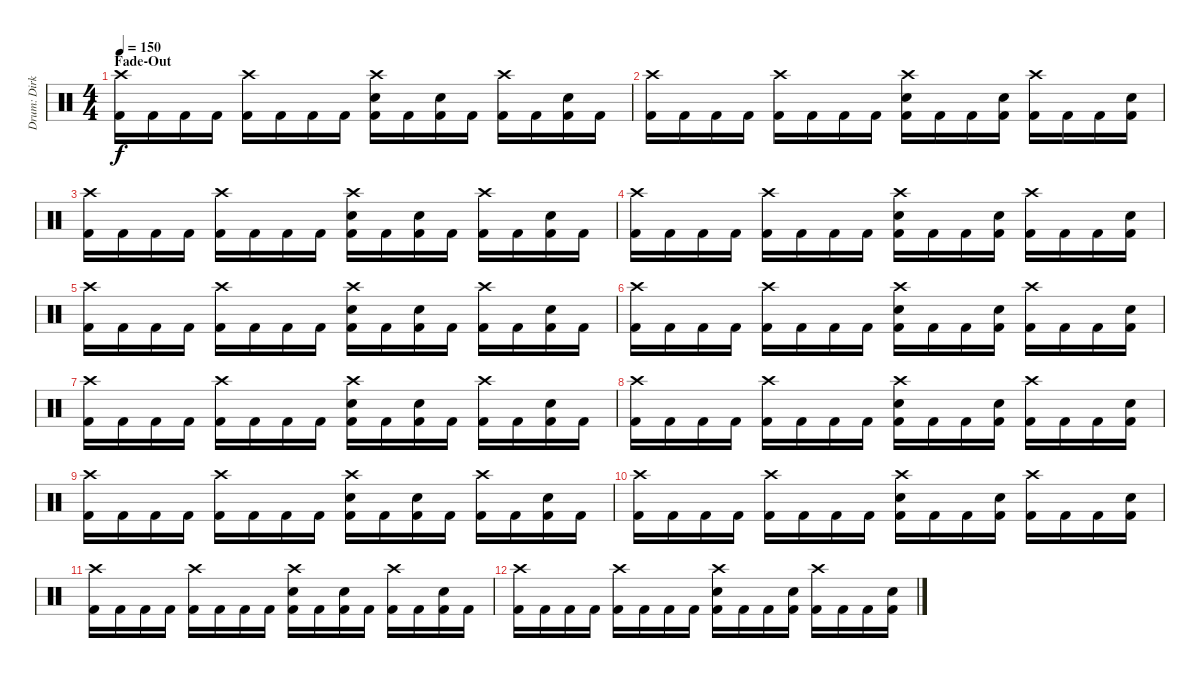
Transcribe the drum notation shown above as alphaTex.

\track ("Drum: Dirk" "Drum: Dirk") {instrument percussion}
\staff {score}
\articulation defaults
\ts (4 4)
\section ("" "Fade-Out")
\tempo 150
\clef neutral
\ks c
("Crash high (hit)" "Kick (hit) 2").16{dy f} "Kick (hit) 2".16 "Kick (hit) 2".16 "Kick (hit) 2".16 ("Crash high (hit)" "Kick (hit) 2").16 "Kick (hit) 2".16 "Kick (hit) 2".16 "Kick (hit) 2".16 ("Crash high (hit)" "Electric Snare (hit)" "Kick (hit) 2").16 "Kick (hit) 2".16 ("Electric Snare (hit)" "Kick (hit) 2").16 "Kick (hit) 2".16 ("Crash high (hit)" "Kick (hit) 2").16 "Kick (hit) 2".16 ("Electric Snare (hit)" "Kick (hit) 2").16 "Kick (hit) 2".16 |
("Crash high (hit)" "Kick (hit) 2").16 "Kick (hit) 2".16 "Kick (hit) 2".16 "Kick (hit) 2".16 ("Crash high (hit)" "Kick (hit) 2").16 "Kick (hit) 2".16 "Kick (hit) 2".16 "Kick (hit) 2".16 ("Crash high (hit)" "Electric Snare (hit)" "Kick (hit) 2").16 "Kick (hit) 2".16 "Kick (hit) 2".16 ("Electric Snare (hit)" "Kick (hit) 2").16 ("Crash high (hit)" "Kick (hit) 2").16 "Kick (hit) 2".16 "Kick (hit) 2".16 ("Electric Snare (hit)" "Kick (hit) 2").16 |
("Crash high (hit)" "Kick (hit) 2").16 "Kick (hit) 2".16 "Kick (hit) 2".16 "Kick (hit) 2".16 ("Crash high (hit)" "Kick (hit) 2").16 "Kick (hit) 2".16 "Kick (hit) 2".16 "Kick (hit) 2".16 ("Crash high (hit)" "Electric Snare (hit)" "Kick (hit) 2").16 "Kick (hit) 2".16 ("Electric Snare (hit)" "Kick (hit) 2").16 "Kick (hit) 2".16 ("Crash high (hit)" "Kick (hit) 2").16 "Kick (hit) 2".16 ("Electric Snare (hit)" "Kick (hit) 2").16 "Kick (hit) 2".16 |
("Crash high (hit)" "Kick (hit) 2").16 "Kick (hit) 2".16 "Kick (hit) 2".16 "Kick (hit) 2".16 ("Crash high (hit)" "Kick (hit) 2").16 "Kick (hit) 2".16 "Kick (hit) 2".16 "Kick (hit) 2".16 ("Crash high (hit)" "Electric Snare (hit)" "Kick (hit) 2").16 "Kick (hit) 2".16 "Kick (hit) 2".16 ("Electric Snare (hit)" "Kick (hit) 2").16 ("Crash high (hit)" "Kick (hit) 2").16 "Kick (hit) 2".16 "Kick (hit) 2".16 ("Electric Snare (hit)" "Kick (hit) 2").16 |
("Crash high (hit)" "Kick (hit) 2").16 "Kick (hit) 2".16 "Kick (hit) 2".16 "Kick (hit) 2".16 ("Crash high (hit)" "Kick (hit) 2").16 "Kick (hit) 2".16 "Kick (hit) 2".16 "Kick (hit) 2".16 ("Crash high (hit)" "Electric Snare (hit)" "Kick (hit) 2").16 "Kick (hit) 2".16 ("Electric Snare (hit)" "Kick (hit) 2").16 "Kick (hit) 2".16 ("Crash high (hit)" "Kick (hit) 2").16 "Kick (hit) 2".16 ("Electric Snare (hit)" "Kick (hit) 2").16 "Kick (hit) 2".16 |
("Crash high (hit)" "Kick (hit) 2").16 "Kick (hit) 2".16 "Kick (hit) 2".16 "Kick (hit) 2".16 ("Crash high (hit)" "Kick (hit) 2").16 "Kick (hit) 2".16 "Kick (hit) 2".16 "Kick (hit) 2".16 ("Crash high (hit)" "Electric Snare (hit)" "Kick (hit) 2").16 "Kick (hit) 2".16 "Kick (hit) 2".16 ("Electric Snare (hit)" "Kick (hit) 2").16 ("Crash high (hit)" "Kick (hit) 2").16 "Kick (hit) 2".16 "Kick (hit) 2".16 ("Electric Snare (hit)" "Kick (hit) 2").16 |
("Crash high (hit)" "Kick (hit) 2").16 "Kick (hit) 2".16 "Kick (hit) 2".16 "Kick (hit) 2".16 ("Crash high (hit)" "Kick (hit) 2").16 "Kick (hit) 2".16 "Kick (hit) 2".16 "Kick (hit) 2".16 ("Crash high (hit)" "Electric Snare (hit)" "Kick (hit) 2").16 "Kick (hit) 2".16 ("Electric Snare (hit)" "Kick (hit) 2").16 "Kick (hit) 2".16 ("Crash high (hit)" "Kick (hit) 2").16 "Kick (hit) 2".16 ("Electric Snare (hit)" "Kick (hit) 2").16 "Kick (hit) 2".16 |
("Crash high (hit)" "Kick (hit) 2").16 "Kick (hit) 2".16 "Kick (hit) 2".16 "Kick (hit) 2".16 ("Crash high (hit)" "Kick (hit) 2").16 "Kick (hit) 2".16 "Kick (hit) 2".16 "Kick (hit) 2".16 ("Crash high (hit)" "Electric Snare (hit)" "Kick (hit) 2").16 "Kick (hit) 2".16 "Kick (hit) 2".16 ("Electric Snare (hit)" "Kick (hit) 2").16 ("Crash high (hit)" "Kick (hit) 2").16 "Kick (hit) 2".16 "Kick (hit) 2".16 ("Electric Snare (hit)" "Kick (hit) 2").16 |
("Crash high (hit)" "Kick (hit) 2").16 "Kick (hit) 2".16 "Kick (hit) 2".16 "Kick (hit) 2".16 ("Crash high (hit)" "Kick (hit) 2").16 "Kick (hit) 2".16 "Kick (hit) 2".16 "Kick (hit) 2".16 ("Crash high (hit)" "Electric Snare (hit)" "Kick (hit) 2").16 "Kick (hit) 2".16 ("Electric Snare (hit)" "Kick (hit) 2").16 "Kick (hit) 2".16 ("Crash high (hit)" "Kick (hit) 2").16 "Kick (hit) 2".16 ("Electric Snare (hit)" "Kick (hit) 2").16 "Kick (hit) 2".16 |
("Crash high (hit)" "Kick (hit) 2").16 "Kick (hit) 2".16 "Kick (hit) 2".16 "Kick (hit) 2".16 ("Crash high (hit)" "Kick (hit) 2").16 "Kick (hit) 2".16 "Kick (hit) 2".16 "Kick (hit) 2".16 ("Crash high (hit)" "Electric Snare (hit)" "Kick (hit) 2").16 "Kick (hit) 2".16 "Kick (hit) 2".16 ("Electric Snare (hit)" "Kick (hit) 2").16 ("Crash high (hit)" "Kick (hit) 2").16 "Kick (hit) 2".16 "Kick (hit) 2".16 ("Electric Snare (hit)" "Kick (hit) 2").16 |
("Crash high (hit)" "Kick (hit) 2").16 "Kick (hit) 2".16 "Kick (hit) 2".16 "Kick (hit) 2".16 ("Crash high (hit)" "Kick (hit) 2").16 "Kick (hit) 2".16 "Kick (hit) 2".16 "Kick (hit) 2".16 ("Crash high (hit)" "Electric Snare (hit)" "Kick (hit) 2").16 "Kick (hit) 2".16 ("Electric Snare (hit)" "Kick (hit) 2").16 "Kick (hit) 2".16 ("Crash high (hit)" "Kick (hit) 2").16 "Kick (hit) 2".16 ("Electric Snare (hit)" "Kick (hit) 2").16 "Kick (hit) 2".16 |
("Crash high (hit)" "Kick (hit) 2").16 "Kick (hit) 2".16 "Kick (hit) 2".16 "Kick (hit) 2".16 ("Crash high (hit)" "Kick (hit) 2").16 "Kick (hit) 2".16 "Kick (hit) 2".16 "Kick (hit) 2".16 ("Crash high (hit)" "Electric Snare (hit)" "Kick (hit) 2").16 "Kick (hit) 2".16 "Kick (hit) 2".16 ("Electric Snare (hit)" "Kick (hit) 2").16 ("Crash high (hit)" "Kick (hit) 2").16 "Kick (hit) 2".16 "Kick (hit) 2".16 ("Electric Snare (hit)" "Kick (hit) 2").16
